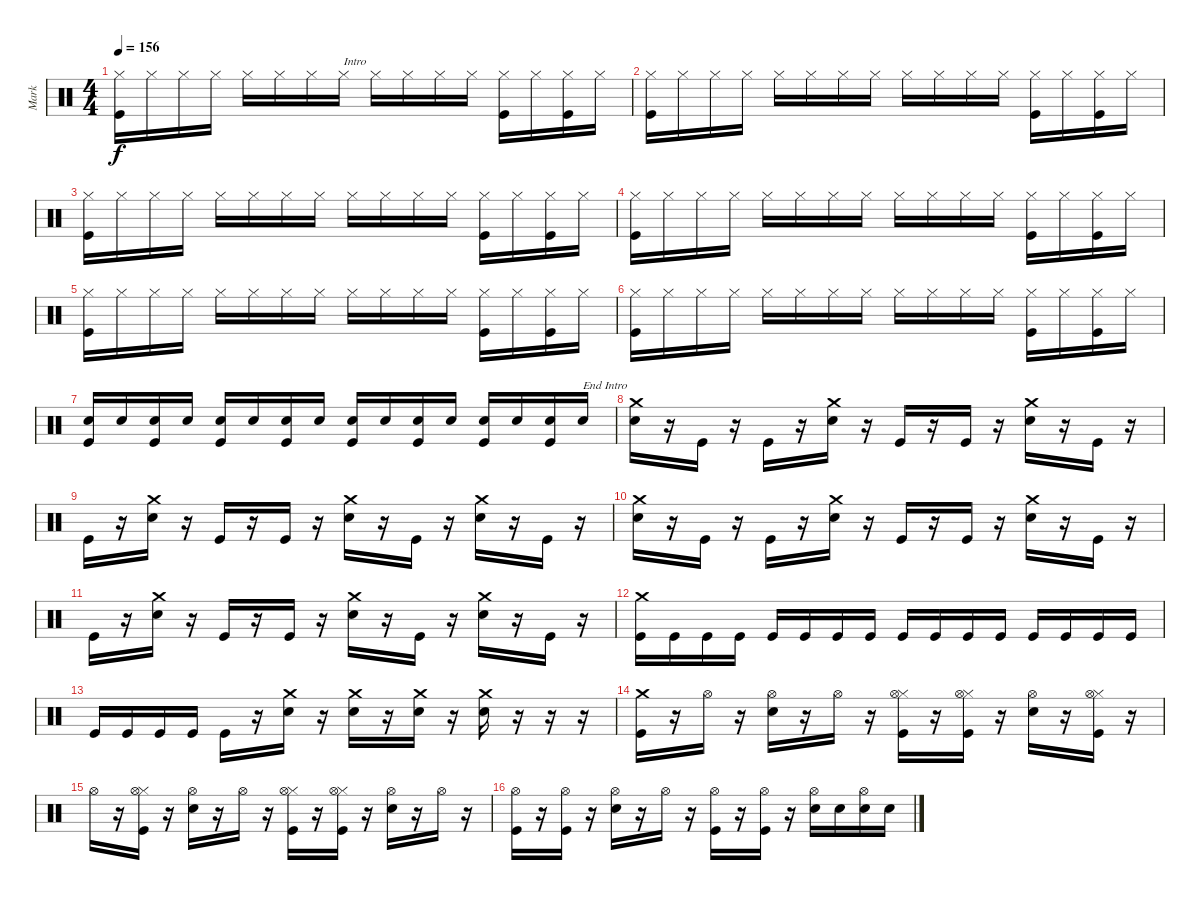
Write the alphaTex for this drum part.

\track ("Mark" "Mark") {instrument percussion}
\staff {score}
\articulation defaults
\ts (4 4)
\tempo 156
\clef neutral
\ks c
("Kick (hit)" "Hi-Hat (closed)").16{dy f} "Hi-Hat (closed)".16 "Hi-Hat (closed)".16 "Hi-Hat (closed)".16 "Hi-Hat (closed)".16 "Hi-Hat (closed)".16 "Hi-Hat (closed)".16 "Hi-Hat (closed)".16{txt "Intro"} "Hi-Hat (closed)".16 "Hi-Hat (closed)".16 "Hi-Hat (closed)".16 "Hi-Hat (closed)".16 ("Kick (hit)" "Hi-Hat (closed)").16 "Hi-Hat (closed)".16 ("Kick (hit)" "Hi-Hat (closed)").16 "Hi-Hat (closed)".16 |
("Kick (hit)" "Hi-Hat (closed)").16 "Hi-Hat (closed)".16 "Hi-Hat (closed)".16 "Hi-Hat (closed)".16 "Hi-Hat (closed)".16 "Hi-Hat (closed)".16 "Hi-Hat (closed)".16 "Hi-Hat (closed)".16 "Hi-Hat (closed)".16 "Hi-Hat (closed)".16 "Hi-Hat (closed)".16 "Hi-Hat (closed)".16 ("Kick (hit)" "Hi-Hat (closed)").16 "Hi-Hat (closed)".16 ("Kick (hit)" "Hi-Hat (closed)").16 "Hi-Hat (closed)".16 |
("Kick (hit)" "Hi-Hat (closed)").16 "Hi-Hat (closed)".16 "Hi-Hat (closed)".16 "Hi-Hat (closed)".16 "Hi-Hat (closed)".16 "Hi-Hat (closed)".16 "Hi-Hat (closed)".16 "Hi-Hat (closed)".16 "Hi-Hat (closed)".16 "Hi-Hat (closed)".16 "Hi-Hat (closed)".16 "Hi-Hat (closed)".16 ("Kick (hit)" "Hi-Hat (closed)").16 "Hi-Hat (closed)".16 ("Kick (hit)" "Hi-Hat (closed)").16 "Hi-Hat (closed)".16 |
("Kick (hit)" "Hi-Hat (closed)").16 "Hi-Hat (closed)".16 "Hi-Hat (closed)".16 "Hi-Hat (closed)".16 "Hi-Hat (closed)".16 "Hi-Hat (closed)".16 "Hi-Hat (closed)".16 "Hi-Hat (closed)".16 "Hi-Hat (closed)".16 "Hi-Hat (closed)".16 "Hi-Hat (closed)".16 "Hi-Hat (closed)".16 ("Kick (hit)" "Hi-Hat (closed)").16 "Hi-Hat (closed)".16 ("Kick (hit)" "Hi-Hat (closed)").16 "Hi-Hat (closed)".16 |
("Kick (hit)" "Hi-Hat (closed)").16 "Hi-Hat (closed)".16 "Hi-Hat (closed)".16 "Hi-Hat (closed)".16 "Hi-Hat (closed)".16 "Hi-Hat (closed)".16 "Hi-Hat (closed)".16 "Hi-Hat (closed)".16 "Hi-Hat (closed)".16 "Hi-Hat (closed)".16 "Hi-Hat (closed)".16 "Hi-Hat (closed)".16 ("Kick (hit)" "Hi-Hat (closed)").16 "Hi-Hat (closed)".16 ("Kick (hit)" "Hi-Hat (closed)").16 "Hi-Hat (closed)".16 |
("Kick (hit)" "Hi-Hat (closed)").16 "Hi-Hat (closed)".16 "Hi-Hat (closed)".16 "Hi-Hat (closed)".16 "Hi-Hat (closed)".16 "Hi-Hat (closed)".16 "Hi-Hat (closed)".16 "Hi-Hat (closed)".16 "Hi-Hat (closed)".16 "Hi-Hat (closed)".16 "Hi-Hat (closed)".16 "Hi-Hat (closed)".16 ("Kick (hit)" "Hi-Hat (closed)").16 "Hi-Hat (closed)".16 ("Kick (hit)" "Hi-Hat (closed)").16 "Hi-Hat (closed)".16 |
("Kick (hit)" "Snare (hit) 2").16 "Snare (hit) 2".16 ("Kick (hit)" "Snare (hit) 2").16 "Snare (hit) 2".16 ("Kick (hit)" "Snare (hit) 2").16 "Snare (hit) 2".16 ("Kick (hit)" "Snare (hit) 2").16 "Snare (hit) 2".16 ("Kick (hit)" "Snare (hit) 2").16 "Snare (hit) 2".16 ("Kick (hit)" "Snare (hit) 2").16 "Snare (hit) 2".16 ("Kick (hit)" "Snare (hit) 2").16 "Snare (hit) 2".16 ("Kick (hit)" "Snare (hit) 2").16 "Snare (hit) 2".16{txt "End Intro"} |
("Snare (hit) 2" "Crash medium (hit)").16 r.16 "Kick (hit)".16 r.16 "Kick (hit)".16 r.16 ("Snare (hit) 2" "Crash medium (hit)").16 r.16 "Kick (hit)".16 r.16 "Kick (hit)".16 r.16 ("Snare (hit) 2" "Crash medium (hit)").16 r.16 "Kick (hit)".16 r.16 |
"Kick (hit)".16 r.16 ("Snare (hit) 2" "Crash medium (hit)").16 r.16 "Kick (hit)".16 r.16 "Kick (hit)".16 r.16 ("Snare (hit) 2" "Crash medium (hit)").16 r.16 "Kick (hit)".16 r.16 ("Snare (hit) 2" "Crash medium (hit)").16 r.16 "Kick (hit)".16 r.16 |
("Snare (hit) 2" "Crash medium (hit)").16 r.16 "Kick (hit)".16 r.16 "Kick (hit)".16 r.16 ("Snare (hit) 2" "Crash medium (hit)").16 r.16 "Kick (hit)".16 r.16 "Kick (hit)".16 r.16 ("Snare (hit) 2" "Crash medium (hit)").16 r.16 "Kick (hit)".16 r.16 |
"Kick (hit)".16 r.16 ("Snare (hit) 2" "Crash medium (hit)").16 r.16 "Kick (hit)".16 r.16 "Kick (hit)".16 r.16 ("Snare (hit) 2" "Crash medium (hit)").16 r.16 "Kick (hit)".16 r.16 ("Snare (hit) 2" "Crash medium (hit)").16 r.16 "Kick (hit)".16 r.16 |
("Crash medium (hit)" "Kick (hit)").16 "Kick (hit)".16 "Kick (hit)".16 "Kick (hit)".16 "Kick (hit)".16 "Kick (hit)".16 "Kick (hit)".16 "Kick (hit)".16 "Kick (hit)".16 "Kick (hit)".16 "Kick (hit)".16 "Kick (hit)".16 "Kick (hit)".16 "Kick (hit)".16 "Kick (hit)".16 "Kick (hit)".16 |
"Kick (hit)".16 "Kick (hit)".16 "Kick (hit)".16 "Kick (hit)".16 "Kick (hit)".16 r.16 ("Crash medium (hit)" "Snare (hit) 2").16 r.16 ("Crash medium (hit)" "Snare (hit) 2").16 r.16 ("Crash medium (hit)" "Snare (hit) 2").16 r.16 ("Crash medium (hit)" "Snare (hit) 2").16 r.16 r.16 r.16 |
("Kick (hit)" "Crash medium (hit)").16 r.16 "Hi-Hat (open)".16 r.16 ("Hi-Hat (open)" "Snare (hit) 2").16 r.16 "Hi-Hat (open)".16 r.16 ("Kick (hit)" "Hi-Hat (closed)" "Hi-Hat (open)").16 r.16 ("Kick (hit)" "Hi-Hat (closed)" "Hi-Hat (open)").16 r.16 ("Hi-Hat (open)" "Snare (hit) 2").16 r.16 ("Kick (hit)" "Hi-Hat (closed)" "Hi-Hat (open)").16 r.16 |
"Hi-Hat (open)".16 r.16 ("Kick (hit)" "Hi-Hat (closed)" "Hi-Hat (open)").16 r.16 ("Hi-Hat (open)" "Snare (hit) 2").16 r.16 "Hi-Hat (open)".16 r.16 ("Kick (hit)" "Hi-Hat (closed)" "Hi-Hat (open)").16 r.16 ("Kick (hit)" "Hi-Hat (closed)" "Hi-Hat (open)").16 r.16 ("Hi-Hat (open)" "Snare (hit) 2").16 r.16 "Hi-Hat (open)".16 r.16 |
("Kick (hit)" "Hi-Hat (open)").16 r.16 ("Kick (hit)" "Hi-Hat (open)").16 r.16 ("Snare (hit) 2" "Hi-Hat (open)").16 r.16 "Hi-Hat (open)".16 r.16 ("Kick (hit)" "Hi-Hat (open)").16 r.16 ("Kick (hit)" "Hi-Hat (open)").16 r.16 ("Snare (hit) 2" "Hi-Hat (open)").16 "Snare (hit) 2".16 ("Snare (hit) 2" "Hi-Hat (open)").16 "Snare (hit) 2".16
